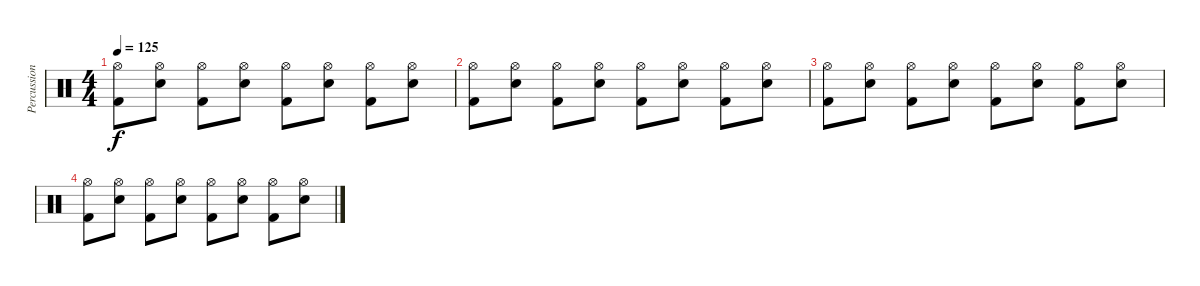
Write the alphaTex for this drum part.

\track ("Percussion" "Percussion") {instrument percussion}
\staff {score}
\articulation defaults
\ts (4 4)
\tempo 125
\clef neutral
\ks c
("Hi-Hat (open)" "Kick (hit) 2").8{dy f} ("Snare (hit) 2" "Hi-Hat (open)").8 ("Hi-Hat (open)" "Kick (hit) 2").8 ("Snare (hit) 2" "Hi-Hat (open)").8 ("Hi-Hat (open)" "Kick (hit) 2").8 ("Snare (hit) 2" "Hi-Hat (open)").8 ("Hi-Hat (open)" "Kick (hit) 2").8 ("Snare (hit) 2" "Hi-Hat (open)").8 |
("Hi-Hat (open)" "Kick (hit) 2").8 ("Snare (hit) 2" "Hi-Hat (open)").8 ("Hi-Hat (open)" "Kick (hit) 2").8 ("Snare (hit) 2" "Hi-Hat (open)").8 ("Hi-Hat (open)" "Kick (hit) 2").8 ("Snare (hit) 2" "Hi-Hat (open)").8 ("Hi-Hat (open)" "Kick (hit) 2").8 ("Snare (hit) 2" "Hi-Hat (open)").8 |
("Hi-Hat (open)" "Kick (hit) 2").8 ("Snare (hit) 2" "Hi-Hat (open)").8 ("Hi-Hat (open)" "Kick (hit) 2").8 ("Snare (hit) 2" "Hi-Hat (open)").8 ("Hi-Hat (open)" "Kick (hit) 2").8 ("Snare (hit) 2" "Hi-Hat (open)").8 ("Hi-Hat (open)" "Kick (hit) 2").8 ("Snare (hit) 2" "Hi-Hat (open)").8 |
("Hi-Hat (open)" "Kick (hit) 2").8 ("Snare (hit) 2" "Hi-Hat (open)").8 ("Hi-Hat (open)" "Kick (hit) 2").8 ("Snare (hit) 2" "Hi-Hat (open)").8 ("Hi-Hat (open)" "Kick (hit) 2").8 ("Snare (hit) 2" "Hi-Hat (open)").8 ("Hi-Hat (open)" "Kick (hit) 2").8 ("Snare (hit) 2" "Hi-Hat (open)").8
